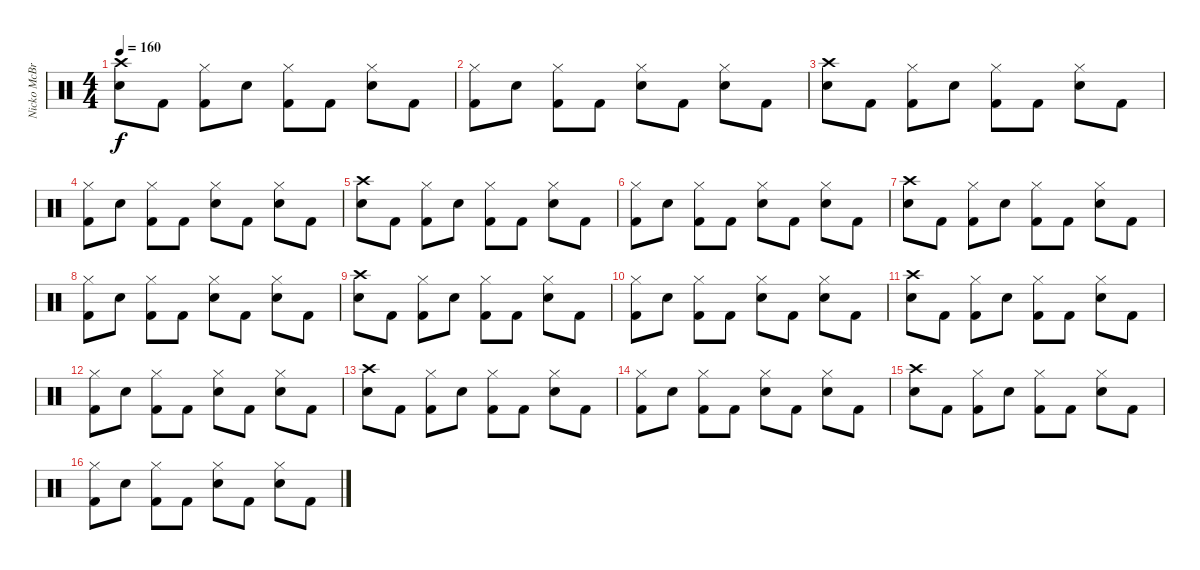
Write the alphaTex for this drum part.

\track ("Nicko McBrain" "Nicko McBr") {instrument percussion}
\staff {score}
\articulation defaults
\ts (4 4)
\tempo 160
\clef neutral
\ks c
("Crash high (hit)" "Snare (hit) 2").8{dy f} "Kick (hit) 2".8 ("Hi-Hat (closed)" "Kick (hit) 2").8 "Snare (hit) 2".8 ("Hi-Hat (closed)" "Kick (hit) 2").8 "Kick (hit) 2".8 ("Hi-Hat (closed)" "Snare (hit) 2").8 "Kick (hit) 2".8 |
("Hi-Hat (closed)" "Kick (hit) 2").8 "Snare (hit) 2".8 ("Hi-Hat (closed)" "Kick (hit) 2").8 "Kick (hit) 2".8 ("Hi-Hat (closed)" "Snare (hit) 2").8 "Kick (hit) 2".8 ("Hi-Hat (closed)" "Snare (hit) 2").8 "Kick (hit) 2".8 |
("Crash high (hit)" "Snare (hit) 2").8 "Kick (hit) 2".8 ("Hi-Hat (closed)" "Kick (hit) 2").8 "Snare (hit) 2".8 ("Hi-Hat (closed)" "Kick (hit) 2").8 "Kick (hit) 2".8 ("Hi-Hat (closed)" "Snare (hit) 2").8 "Kick (hit) 2".8 |
("Hi-Hat (closed)" "Kick (hit) 2").8 "Snare (hit) 2".8 ("Hi-Hat (closed)" "Kick (hit) 2").8 "Kick (hit) 2".8 ("Hi-Hat (closed)" "Snare (hit) 2").8 "Kick (hit) 2".8 ("Hi-Hat (closed)" "Snare (hit) 2").8 "Kick (hit) 2".8 |
("Crash high (hit)" "Snare (hit) 2").8 "Kick (hit) 2".8 ("Hi-Hat (closed)" "Kick (hit) 2").8 "Snare (hit) 2".8 ("Hi-Hat (closed)" "Kick (hit) 2").8 "Kick (hit) 2".8 ("Hi-Hat (closed)" "Snare (hit) 2").8 "Kick (hit) 2".8 |
("Hi-Hat (closed)" "Kick (hit) 2").8 "Snare (hit) 2".8 ("Hi-Hat (closed)" "Kick (hit) 2").8 "Kick (hit) 2".8 ("Hi-Hat (closed)" "Snare (hit) 2").8 "Kick (hit) 2".8 ("Hi-Hat (closed)" "Snare (hit) 2").8 "Kick (hit) 2".8 |
("Crash high (hit)" "Snare (hit) 2").8 "Kick (hit) 2".8 ("Hi-Hat (closed)" "Kick (hit) 2").8 "Snare (hit) 2".8 ("Hi-Hat (closed)" "Kick (hit) 2").8 "Kick (hit) 2".8 ("Hi-Hat (closed)" "Snare (hit) 2").8 "Kick (hit) 2".8 |
("Hi-Hat (closed)" "Kick (hit) 2").8 "Snare (hit) 2".8 ("Hi-Hat (closed)" "Kick (hit) 2").8 "Kick (hit) 2".8 ("Hi-Hat (closed)" "Snare (hit) 2").8 "Kick (hit) 2".8 ("Hi-Hat (closed)" "Snare (hit) 2").8 "Kick (hit) 2".8 |
("Crash high (hit)" "Snare (hit) 2").8 "Kick (hit) 2".8 ("Hi-Hat (closed)" "Kick (hit) 2").8 "Snare (hit) 2".8 ("Hi-Hat (closed)" "Kick (hit) 2").8 "Kick (hit) 2".8 ("Hi-Hat (closed)" "Snare (hit) 2").8 "Kick (hit) 2".8 |
("Hi-Hat (closed)" "Kick (hit) 2").8 "Snare (hit) 2".8 ("Hi-Hat (closed)" "Kick (hit) 2").8 "Kick (hit) 2".8 ("Hi-Hat (closed)" "Snare (hit) 2").8 "Kick (hit) 2".8 ("Hi-Hat (closed)" "Snare (hit) 2").8 "Kick (hit) 2".8 |
("Crash high (hit)" "Snare (hit) 2").8 "Kick (hit) 2".8 ("Hi-Hat (closed)" "Kick (hit) 2").8 "Snare (hit) 2".8 ("Hi-Hat (closed)" "Kick (hit) 2").8 "Kick (hit) 2".8 ("Hi-Hat (closed)" "Snare (hit) 2").8 "Kick (hit) 2".8 |
("Hi-Hat (closed)" "Kick (hit) 2").8 "Snare (hit) 2".8 ("Hi-Hat (closed)" "Kick (hit) 2").8 "Kick (hit) 2".8 ("Hi-Hat (closed)" "Snare (hit) 2").8 "Kick (hit) 2".8 ("Hi-Hat (closed)" "Snare (hit) 2").8 "Kick (hit) 2".8 |
("Crash high (hit)" "Snare (hit) 2").8 "Kick (hit) 2".8 ("Hi-Hat (closed)" "Kick (hit) 2").8 "Snare (hit) 2".8 ("Hi-Hat (closed)" "Kick (hit) 2").8 "Kick (hit) 2".8 ("Hi-Hat (closed)" "Snare (hit) 2").8 "Kick (hit) 2".8 |
("Hi-Hat (closed)" "Kick (hit) 2").8 "Snare (hit) 2".8 ("Hi-Hat (closed)" "Kick (hit) 2").8 "Kick (hit) 2".8 ("Hi-Hat (closed)" "Snare (hit) 2").8 "Kick (hit) 2".8 ("Hi-Hat (closed)" "Snare (hit) 2").8 "Kick (hit) 2".8 |
("Crash high (hit)" "Snare (hit) 2").8 "Kick (hit) 2".8 ("Hi-Hat (closed)" "Kick (hit) 2").8 "Snare (hit) 2".8 ("Hi-Hat (closed)" "Kick (hit) 2").8 "Kick (hit) 2".8 ("Hi-Hat (closed)" "Snare (hit) 2").8 "Kick (hit) 2".8 |
("Hi-Hat (closed)" "Kick (hit) 2").8 "Snare (hit) 2".8 ("Hi-Hat (closed)" "Kick (hit) 2").8 "Kick (hit) 2".8 ("Hi-Hat (closed)" "Snare (hit) 2").8 "Kick (hit) 2".8 ("Hi-Hat (closed)" "Snare (hit) 2").8 "Kick (hit) 2".8
